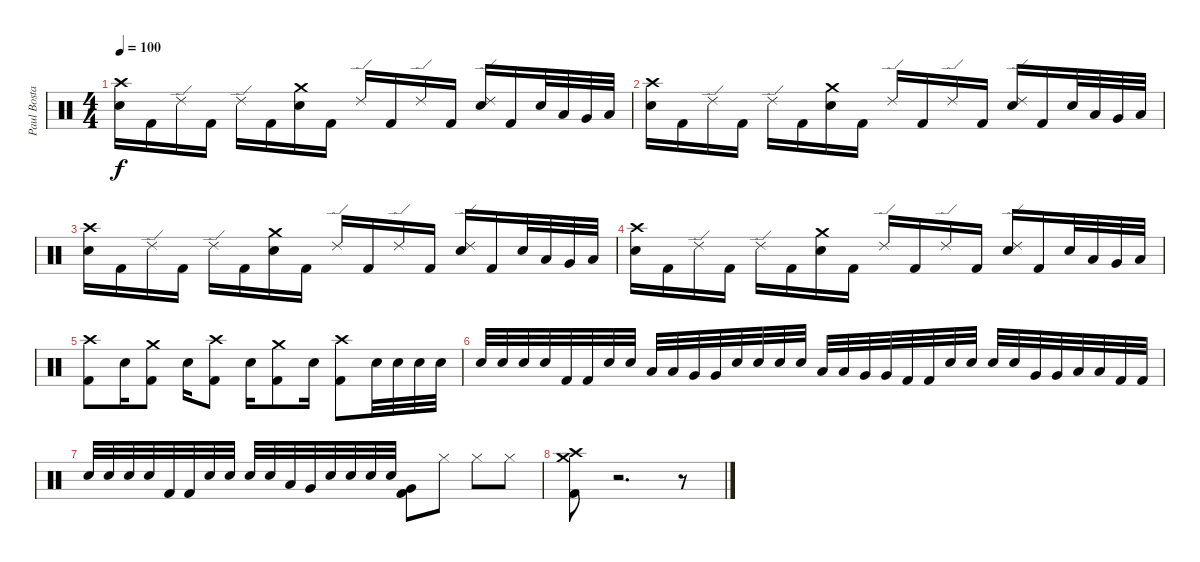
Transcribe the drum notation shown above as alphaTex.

\track ("Paul Bostaph" "Paul Bosta") {instrument percussion}
\staff {score}
\articulation defaults
\ts (4 4)
\tempo 100
\clef neutral
\ks c
("Crash high (hit)" "Snare (hit) 2").16{dy f} "Kick (hit) 2".16 "Ride (edge) 2".16 "Kick (hit) 2".16 "Ride (edge) 2".16 "Kick (hit) 2".16 ("Crash medium (hit)" "Snare (hit) 2").16 "Kick (hit) 2".16 "Ride (edge) 2".16 "Kick (hit) 2".16 "Ride (edge) 2".16 "Kick (hit) 2".16 ("Ride (edge) 2" "Snare (hit) 2").16 "Kick (hit) 2".16 "Snare (hit) 2".32 "Low Tom (hit)".32 "Very Low Tom (hit)".32 "Low Floor Tom (hit)".32 |
("Crash high (hit)" "Snare (hit) 2").16 "Kick (hit) 2".16 "Ride (edge) 2".16 "Kick (hit) 2".16 "Ride (edge) 2".16 "Kick (hit) 2".16 ("Crash medium (hit)" "Snare (hit) 2").16 "Kick (hit) 2".16 "Ride (edge) 2".16 "Kick (hit) 2".16 "Ride (edge) 2".16 "Kick (hit) 2".16 ("Ride (edge) 2" "Snare (hit) 2").16 "Kick (hit) 2".16 "Snare (hit) 2".32 "Low Tom (hit)".32 "Very Low Tom (hit)".32 "Low Floor Tom (hit)".32 |
("Crash high (hit)" "Snare (hit) 2").16 "Kick (hit) 2".16 "Ride (edge) 2".16 "Kick (hit) 2".16 "Ride (edge) 2".16 "Kick (hit) 2".16 ("Crash medium (hit)" "Snare (hit) 2").16 "Kick (hit) 2".16 "Ride (edge) 2".16 "Kick (hit) 2".16 "Ride (edge) 2".16 "Kick (hit) 2".16 ("Ride (edge) 2" "Snare (hit) 2").16 "Kick (hit) 2".16 "Snare (hit) 2".32 "Low Tom (hit)".32 "Very Low Tom (hit)".32 "Low Floor Tom (hit)".32 |
("Crash high (hit)" "Snare (hit) 2").16 "Kick (hit) 2".16 "Ride (edge) 2".16 "Kick (hit) 2".16 "Ride (edge) 2".16 "Kick (hit) 2".16 ("Crash medium (hit)" "Snare (hit) 2").16 "Kick (hit) 2".16 "Ride (edge) 2".16 "Kick (hit) 2".16 "Ride (edge) 2".16 "Kick (hit) 2".16 ("Ride (edge) 2" "Snare (hit) 2").16 "Kick (hit) 2".16 "Snare (hit) 2".32 "Low Tom (hit)".32 "Very Low Tom (hit)".32 "Low Floor Tom (hit)".32 |
("Crash high (hit)" "Kick (hit) 2").8 "Snare (hit) 2".16 ("Crash medium (hit)" "Kick (hit) 2").8 "Snare (hit) 2".16 ("Crash high (hit)" "Kick (hit) 2").8 "Snare (hit) 2".16 ("Crash medium (hit)" "Kick (hit) 2").8 "Snare (hit) 2".16 ("Crash high (hit)" "Kick (hit) 2").8 "Snare (hit) 2".32 "Snare (hit) 2".32 "Snare (hit) 2".32 "Snare (hit) 2".32 |
"Snare (hit) 2".32 "Snare (hit) 2".32 "Snare (hit) 2".32 "Snare (hit) 2".32 "Kick (hit) 2".32 "Kick (hit) 2".32 "Snare (hit) 2".32 "Snare (hit) 2".32 "Low Tom (hit)".32 "Low Tom (hit)".32 "Very Low Tom (hit)".32 "Very Low Tom (hit)".32 "Snare (hit) 2".32 "Snare (hit) 2".32 "Snare (hit) 2".32 "Snare (hit) 2".32 "Low Tom (hit)".32 "Low Tom (hit)".32 "Very Low Tom (hit)".32 "Very Low Tom (hit)".32 "Kick (hit) 2".32 "Kick (hit) 2".32 "Snare (hit) 2".32 "Snare (hit) 2".32 "Snare (hit) 2".32 "Snare (hit) 2".32 "Very Low Tom (hit)".32 "Very Low Tom (hit)".32 "Low Floor Tom (hit)".32 "Low Floor Tom (hit)".32 "Kick (hit) 2".32 "Kick (hit) 2".32 |
"Snare (hit) 2".32 "Snare (hit) 2".32 "Snare (hit) 2".32 "Snare (hit) 2".32 "Kick (hit) 2".32 "Kick (hit) 2".32 "Snare (hit) 2".32 "Snare (hit) 2".32 "Snare (hit) 2".32 "Snare (hit) 2".32 "Low Tom (hit)".32 "Very Low Tom (hit)".32 "Snare (hit) 2".32 "Snare (hit) 2".32 "Snare (hit) 2".32 "Snare (hit) 2".32 ("Very Low Tom (hit)" "Kick (hit) 2").8 "Hi-Hat (closed)".8 "Hi-Hat (closed)".8 "Hi-Hat (closed)".8 |
("Crash high (hit)" "Crash medium (hit)" "Kick (hit) 2").8 r.2{d} r.8
